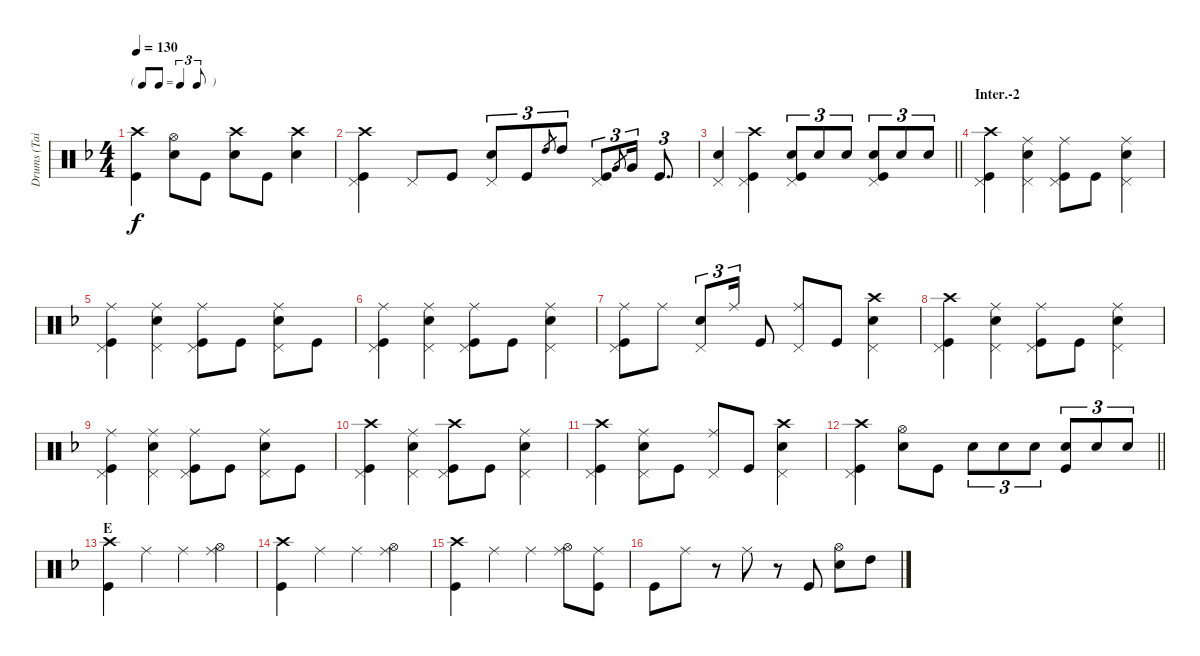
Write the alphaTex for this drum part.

\track ("Drums (Tainaka Ritsu)" "Drums (Tai") {instrument percussion}
\staff {score}
\articulation defaults
\ts (4 4)
\tf triplet8th
\tempo 130
\clef neutral
\ks f
("Crash high (hit)" "Kick (hit)").4{dy f} ("Hi-Hat (open)" "Snare (hit) 2").8 "Kick (hit)".8 ("Crash high (hit)" "Snare (hit) 2").8 "Kick (hit)".8 ("Crash high (hit)" "Snare (hit) 2").4 |
("Crash high (hit)" "Pedal Hi-Hat (hit)" "Kick (hit)").4 "Pedal Hi-Hat (hit)".8 "Kick (hit)".8 ("Pedal Hi-Hat (hit)" "Snare (hit) 2").8{tu (3 2)} "Kick (hit)".8{tu (3 2)} "High Tom (hit)".8{gr} "High Tom (hit)".8{tu (3 2)} ("Pedal Hi-Hat (hit)" "Kick (hit)").8{tu (3 2)} "Very Low Tom (hit)".8{gr} "Very Low Tom (hit)".16{tu (3 2)} "Kick (hit)".8{d tu (3 2)} |
\barLineRight lightlight
("Pedal Hi-Hat (hit)" "Snare (hit) 2").4 ("Crash high (hit)" "Pedal Hi-Hat (hit)" "Kick (hit)").4 ("Pedal Hi-Hat (hit)" "Snare (hit) 2" "Kick (hit)").8{tu (3 2)} "Snare (hit) 2".8{tu (3 2)} "Snare (hit) 2".8{tu (3 2)} ("Pedal Hi-Hat (hit)" "Snare (hit) 2" "Kick (hit)").8{tu (3 2)} "Snare (hit) 2".8{tu (3 2)} "Snare (hit) 2".8{tu (3 2)} |
\section ("" "Inter.-2")
("Crash high (hit)" "Pedal Hi-Hat (hit)" "Kick (hit)").4 ("Ride (middle)" "Pedal Hi-Hat (hit)" "Snare (hit) 2").4 ("Ride (middle)" "Pedal Hi-Hat (hit)" "Kick (hit)").8 "Kick (hit)".8 ("Ride (middle)" "Pedal Hi-Hat (hit)" "Snare (hit) 2").4 |
("Ride (middle)" "Pedal Hi-Hat (hit)" "Kick (hit)").4 ("Ride (middle)" "Pedal Hi-Hat (hit)" "Snare (hit) 2").4 ("Ride (middle)" "Pedal Hi-Hat (hit)" "Kick (hit)").8 "Kick (hit)".8 ("Ride (middle)" "Pedal Hi-Hat (hit)" "Snare (hit) 2").8 "Kick (hit)".8 |
("Ride (middle)" "Pedal Hi-Hat (hit)" "Kick (hit)").4 ("Ride (middle)" "Pedal Hi-Hat (hit)" "Snare (hit) 2").4 ("Ride (middle)" "Pedal Hi-Hat (hit)" "Kick (hit)").8 "Kick (hit)".8 ("Ride (middle)" "Pedal Hi-Hat (hit)" "Snare (hit) 2").4 |
("Ride (middle)" "Pedal Hi-Hat (hit)" "Kick (hit)").8 "Ride (middle)".8 ("Pedal Hi-Hat (hit)" "Snare (hit) 2").8{tu (3 2)} "Ride (middle)".16{tu (3 2)} "Kick (hit)".8 ("Ride (middle)" "Pedal Hi-Hat (hit)").8 "Kick (hit)".8 ("Crash high (hit)" "Pedal Hi-Hat (hit)" "Snare (hit) 2").4 |
("Crash high (hit)" "Pedal Hi-Hat (hit)" "Kick (hit)").4 ("Ride (middle)" "Pedal Hi-Hat (hit)" "Snare (hit) 2").4 ("Ride (middle)" "Pedal Hi-Hat (hit)" "Kick (hit)").8 "Kick (hit)".8 ("Ride (middle)" "Pedal Hi-Hat (hit)" "Snare (hit) 2").4 |
("Ride (middle)" "Pedal Hi-Hat (hit)" "Kick (hit)").4 ("Ride (middle)" "Pedal Hi-Hat (hit)" "Snare (hit) 2").4 ("Ride (middle)" "Pedal Hi-Hat (hit)" "Kick (hit)").8 "Kick (hit)".8 ("Ride (middle)" "Pedal Hi-Hat (hit)" "Snare (hit) 2").8 "Kick (hit)".8 |
("Crash high (hit)" "Pedal Hi-Hat (hit)" "Kick (hit)").4 ("Ride (middle)" "Pedal Hi-Hat (hit)" "Snare (hit) 2").4 ("Crash high (hit)" "Pedal Hi-Hat (hit)" "Kick (hit)").8 "Kick (hit)".8 ("Ride (middle)" "Pedal Hi-Hat (hit)" "Snare (hit) 2").4 |
("Crash high (hit)" "Pedal Hi-Hat (hit)" "Kick (hit)").4 ("Ride (middle)" "Pedal Hi-Hat (hit)" "Snare (hit) 2").8 "Kick (hit)".8 ("Ride (middle)" "Pedal Hi-Hat (hit)").8 "Kick (hit)".8 ("Crash high (hit)" "Pedal Hi-Hat (hit)" "Snare (hit) 2").4 |
\barLineRight lightlight
("Crash high (hit)" "Pedal Hi-Hat (hit)" "Kick (hit)").4 ("Hi-Hat (open)" "Snare (hit) 2").8 "Kick (hit)".8 "Snare (hit) 2".8{tu (3 2)} "Snare (hit) 2".8{tu (3 2)} "Snare (hit) 2".8{tu (3 2)} ("Snare (hit) 2" "Kick (hit)").8{tu (3 2)} "Snare (hit) 2".8{tu (3 2)} "Snare (hit) 2".8{tu (3 2)} |
\section ("" "E")
("Crash high (hit)" "Kick (hit)").4 "Ride (middle)".4 "Ride (middle)".4 ("Ride (middle)" "Hi-Hat (open)").4 |
("Crash high (hit)" "Kick (hit)").4 "Ride (middle)".4 "Ride (middle)".4 ("Ride (middle)" "Hi-Hat (open)").4 |
("Crash high (hit)" "Kick (hit)").4 "Ride (middle)".4 "Ride (middle)".4 ("Ride (middle)" "Hi-Hat (open)").8 ("Ride (middle)" "Kick (hit)").8 |
"Kick (hit)".8 "Ride (middle)".8 r.8 "Ride (middle)".8 r.8 "Kick (hit)".8 ("Hi-Hat (open)" "Snare (hit) 2").8 "High Tom (hit)".8
